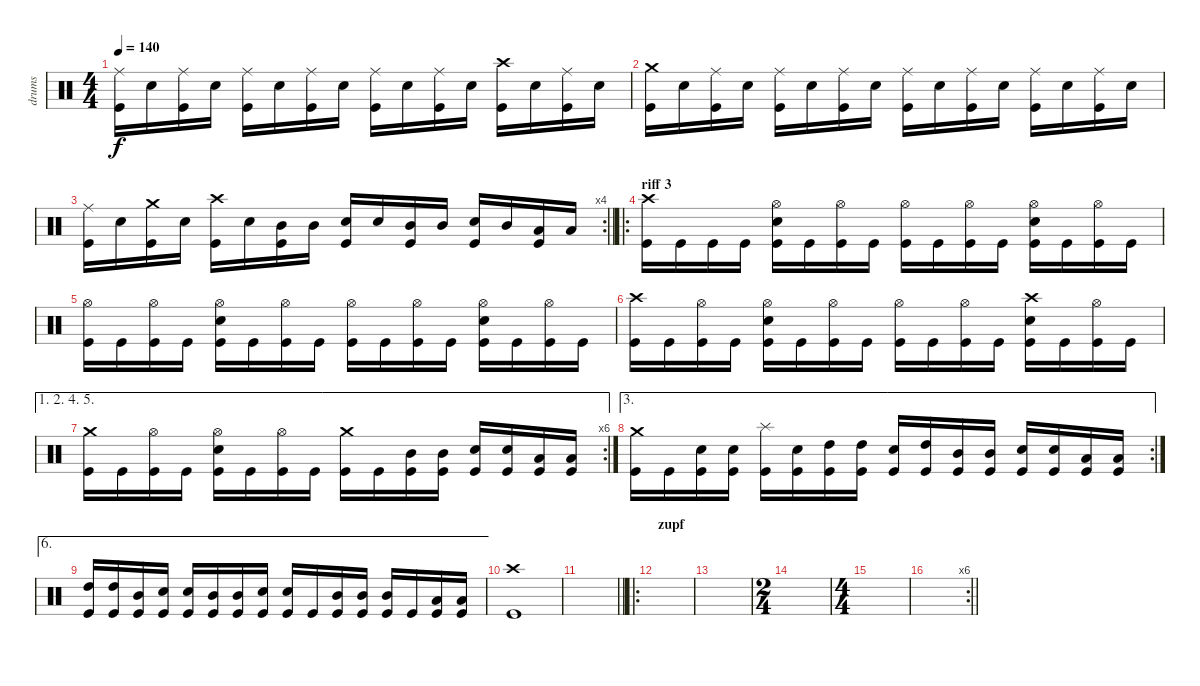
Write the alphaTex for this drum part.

\track ("drums" "drums") {instrument percussion}
\staff {score}
\articulation defaults
\ts (4 4)
\tempo 140
\clef neutral
\ks c
("Ride (middle)" "Kick (hit)").16{dy f} "Snare (hit) 2".16 ("Ride (middle)" "Kick (hit)").16 "Snare (hit) 2".16 ("Ride (middle)" "Kick (hit)").16 "Snare (hit) 2".16 ("Ride (middle)" "Kick (hit)").16 "Snare (hit) 2".16 ("Ride (middle)" "Kick (hit)").16 "Snare (hit) 2".16 ("Ride (middle)" "Kick (hit)").16 "Snare (hit) 2".16 ("Crash high (hit)" "Kick (hit)").16 "Snare (hit) 2".16 ("Ride (middle)" "Kick (hit)").16 "Snare (hit) 2".16 |
("Crash medium (hit)" "Kick (hit)").16 "Snare (hit) 2".16 ("Ride (middle)" "Kick (hit)").16 "Snare (hit) 2".16 ("Ride (middle)" "Kick (hit)").16 "Snare (hit) 2".16 ("Ride (middle)" "Kick (hit)").16 "Snare (hit) 2".16 ("Ride (middle)" "Kick (hit)").16 "Snare (hit) 2".16 ("Ride (middle)" "Kick (hit)").16 "Snare (hit) 2".16 ("Ride (middle)" "Kick (hit)").16 "Snare (hit) 2".16 ("Ride (middle)" "Kick (hit)").16 "Snare (hit) 2".16 |
\rc 4
\barLineRight lightlight
("Ride (middle)" "Kick (hit)").16 "Snare (hit) 2".16 ("Crash medium (hit)" "Kick (hit)").16 "Snare (hit) 2".16 ("Crash high (hit)" "Kick (hit)").16 "Snare (hit) 2".16 ("Mid Tom (hit)" "Kick (hit)").16 "Mid Tom (hit)".16 ("Snare (hit) 2" "Kick (hit)").16 "Snare (hit) 2".16 ("Mid Tom (hit)" "Kick (hit)").16 "Mid Tom (hit)".16 ("Snare (hit) 2" "Kick (hit)").16 "Mid Tom (hit)".16 ("Low Tom (hit)" "Kick (hit)").16 "Low Tom (hit)".16 |
\ro
\section ("" "riff 3")
("Crash high (hit)" "Kick (hit)").16 "Kick (hit)".16 "Kick (hit)".16 "Kick (hit)".16 ("Hi-Hat (open)" "Snare (hit) 2" "Kick (hit)").16 "Kick (hit)".16 ("Hi-Hat (open)" "Kick (hit)").16 "Kick (hit)".16 ("Hi-Hat (open)" "Kick (hit)").16 "Kick (hit)".16 ("Hi-Hat (open)" "Kick (hit)").16 "Kick (hit)".16 ("Hi-Hat (open)" "Snare (hit) 2" "Kick (hit)").16 "Kick (hit)".16 ("Hi-Hat (open)" "Kick (hit)").16 "Kick (hit)".16 |
("Hi-Hat (open)" "Kick (hit)").16 "Kick (hit)".16 ("Hi-Hat (open)" "Kick (hit)").16 "Kick (hit)".16 ("Hi-Hat (open)" "Snare (hit) 2" "Kick (hit)").16 "Kick (hit)".16 ("Hi-Hat (open)" "Kick (hit)").16 "Kick (hit)".16 ("Hi-Hat (open)" "Kick (hit)").16 "Kick (hit)".16 ("Hi-Hat (open)" "Kick (hit)").16 "Kick (hit)".16 ("Hi-Hat (open)" "Snare (hit) 2" "Kick (hit)").16 "Kick (hit)".16 ("Hi-Hat (open)" "Kick (hit)").16 "Kick (hit)".16 |
("Crash high (hit)" "Kick (hit)").16 "Kick (hit)".16 ("Hi-Hat (open)" "Kick (hit)").16 "Kick (hit)".16 ("Hi-Hat (open)" "Snare (hit) 2" "Kick (hit)").16 "Kick (hit)".16 ("Hi-Hat (open)" "Kick (hit)").16 "Kick (hit)".16 ("Hi-Hat (open)" "Kick (hit)").16 "Kick (hit)".16 ("Hi-Hat (open)" "Kick (hit)").16 "Kick (hit)".16 ("Crash high (hit)" "Snare (hit) 2" "Kick (hit)").16 "Kick (hit)".16 ("Hi-Hat (open)" "Kick (hit)").16 "Kick (hit)".16 |
\ae (1 2 4 5)
\rc 6
("Crash medium (hit)" "Kick (hit)").16 "Kick (hit)".16 ("Hi-Hat (open)" "Kick (hit)").16 "Kick (hit)".16 ("Hi-Hat (open)" "Snare (hit) 2" "Kick (hit)").16 "Kick (hit)".16 ("Hi-Hat (open)" "Kick (hit)").16 "Kick (hit)".16 ("Crash medium (hit)" "Kick (hit)").16 "Kick (hit)".16 ("Mid Tom (hit)" "Kick (hit)").16 ("Mid Tom (hit)" "Kick (hit)").16 ("Snare (hit) 2" "Kick (hit)").16 ("Snare (hit) 2" "Kick (hit)").16 ("Low Tom (hit)" "Kick (hit)").16 ("Low Tom (hit)" "Kick (hit)").16 |
\ae 3
\rc 2
("Crash medium (hit)" "Kick (hit)").16 "Kick (hit)".16 ("Snare (hit) 2" "Kick (hit)").16 ("Snare (hit) 2" "Kick (hit)").16 ("Splash (hit)" "Kick (hit)").16 ("Snare (hit) 2" "Kick (hit)").16 ("High Tom (hit)" "Kick (hit)").16 ("High Tom (hit)" "Kick (hit)").16 ("Snare (hit) 2" "Kick (hit)").16 ("High Tom (hit)" "Kick (hit)").16 ("Mid Tom (hit)" "Kick (hit)").16 ("Mid Tom (hit)" "Kick (hit)").16 ("Snare (hit) 2" "Kick (hit)").16 ("Snare (hit) 2" "Kick (hit)").16 ("Low Tom (hit)" "Kick (hit)").16 ("Low Tom (hit)" "Kick (hit)").16 |
\ae 6
("High Tom (hit)" "Kick (hit)").16 ("High Tom (hit)" "Kick (hit)").16 ("Mid Tom (hit)" "Kick (hit)").16 ("Snare (hit) 2" "Kick (hit)").16 ("Snare (hit) 2" "Kick (hit)").16 ("Mid Tom (hit)" "Kick (hit)").16 ("Mid Tom (hit)" "Kick (hit)").16 ("Snare (hit) 2" "Kick (hit)").16 ("Snare (hit) 2" "Kick (hit)").16 "Kick (hit)".16 ("Mid Tom (hit)" "Kick (hit)").16 ("Mid Tom (hit)" "Kick (hit)").16 ("Mid Tom (hit)" "Kick (hit)").16 "Kick (hit)".16 ("Low Tom (hit)" "Kick (hit)").16 ("Low Tom (hit)" "Kick (hit)").16 |
("Crash high (hit)" "Kick (hit)").1 |
\barLineRight lightlight
|
\ro
\section ("" "zupf")
|
|
\ts (2 4)
|
\ts (4 4)
|
\rc 6
\barLineRight lightlight
